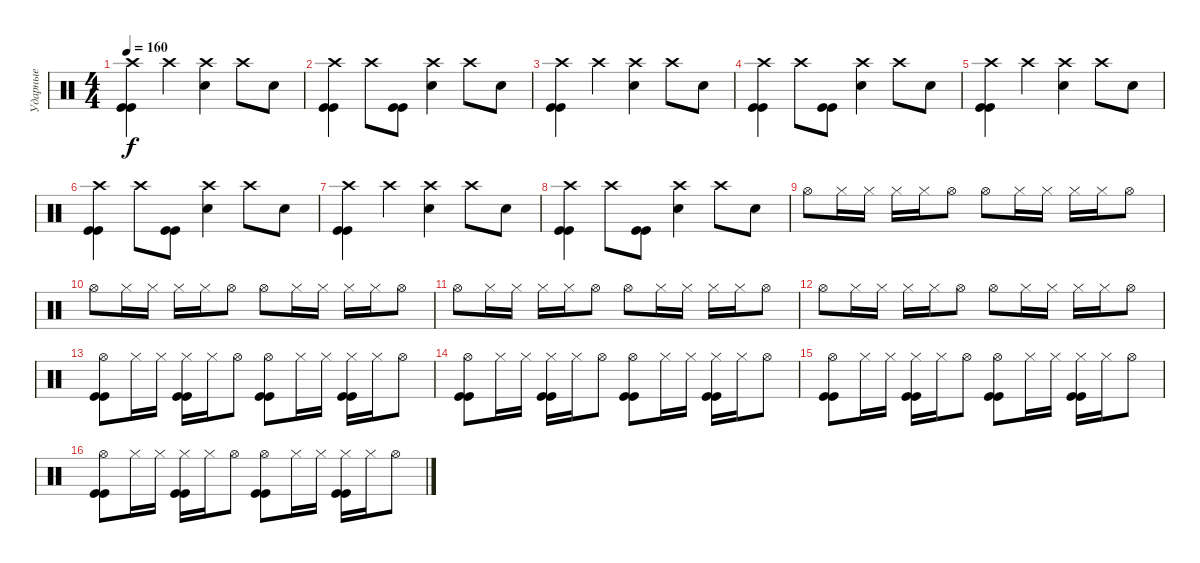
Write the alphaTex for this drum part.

\track ("Ударные" "Ударные") {instrument percussion}
\staff {score}
\articulation defaults
\ts (4 4)
\tempo 160
\clef neutral
\ks c
("Crash high (hit)" "Kick (hit)" "Kick (hit)").4{dy f} "Crash high (hit)".4 ("Crash high (hit)" "Electric Snare (hit)").4 "Crash high (hit)".8 "Electric Snare (hit)".8 |
("Crash high (hit)" "Kick (hit)" "Kick (hit)").4 "Crash high (hit)".8 ("Kick (hit)" "Kick (hit)").8 ("Crash high (hit)" "Electric Snare (hit)").4 "Crash high (hit)".8 "Electric Snare (hit)".8 |
("Crash high (hit)" "Kick (hit)" "Kick (hit)").4 "Crash high (hit)".4 ("Crash high (hit)" "Electric Snare (hit)").4 "Crash high (hit)".8 "Electric Snare (hit)".8 |
("Crash high (hit)" "Kick (hit)" "Kick (hit)").4 "Crash high (hit)".8 ("Kick (hit)" "Kick (hit)").8 ("Crash high (hit)" "Electric Snare (hit)").4 "Crash high (hit)".8 "Electric Snare (hit)".8 |
("Crash high (hit)" "Kick (hit)" "Kick (hit)").4 "Crash high (hit)".4 ("Crash high (hit)" "Electric Snare (hit)").4 "Crash high (hit)".8 "Electric Snare (hit)".8 |
("Crash high (hit)" "Kick (hit)" "Kick (hit)").4 "Crash high (hit)".8 ("Kick (hit)" "Kick (hit)").8 ("Crash high (hit)" "Electric Snare (hit)").4 "Crash high (hit)".8 "Electric Snare (hit)".8 |
("Crash high (hit)" "Kick (hit)" "Kick (hit)").4 "Crash high (hit)".4 ("Crash high (hit)" "Electric Snare (hit)").4 "Crash high (hit)".8 "Electric Snare (hit)".8 |
("Crash high (hit)" "Kick (hit)" "Kick (hit)").4 "Crash high (hit)".8 ("Kick (hit)" "Kick (hit)").8 ("Crash high (hit)" "Electric Snare (hit)").4 "Crash high (hit)".8 "Electric Snare (hit)".8 |
"Hi-Hat (open)".8 "Hi-Hat (closed)".16 "Hi-Hat (closed)".16 "Hi-Hat (closed)".16 "Hi-Hat (closed)".16 "Hi-Hat (open)".8 "Hi-Hat (open)".8 "Hi-Hat (closed)".16 "Hi-Hat (closed)".16 "Hi-Hat (closed)".16 "Hi-Hat (closed)".16 "Hi-Hat (open)".8 |
"Hi-Hat (open)".8 "Hi-Hat (closed)".16 "Hi-Hat (closed)".16 "Hi-Hat (closed)".16 "Hi-Hat (closed)".16 "Hi-Hat (open)".8 "Hi-Hat (open)".8 "Hi-Hat (closed)".16 "Hi-Hat (closed)".16 "Hi-Hat (closed)".16 "Hi-Hat (closed)".16 "Hi-Hat (open)".8 |
"Hi-Hat (open)".8 "Hi-Hat (closed)".16 "Hi-Hat (closed)".16 "Hi-Hat (closed)".16 "Hi-Hat (closed)".16 "Hi-Hat (open)".8 "Hi-Hat (open)".8 "Hi-Hat (closed)".16 "Hi-Hat (closed)".16 "Hi-Hat (closed)".16 "Hi-Hat (closed)".16 "Hi-Hat (open)".8 |
"Hi-Hat (open)".8 "Hi-Hat (closed)".16 "Hi-Hat (closed)".16 "Hi-Hat (closed)".16 "Hi-Hat (closed)".16 "Hi-Hat (open)".8 "Hi-Hat (open)".8 "Hi-Hat (closed)".16 "Hi-Hat (closed)".16 "Hi-Hat (closed)".16 "Hi-Hat (closed)".16 "Hi-Hat (open)".8 |
("Hi-Hat (open)" "Kick (hit)" "Kick (hit)").8 "Hi-Hat (closed)".16 "Hi-Hat (closed)".16 ("Hi-Hat (closed)" "Kick (hit)" "Kick (hit)").16 "Hi-Hat (closed)".16 "Hi-Hat (open)".8 ("Hi-Hat (open)" "Kick (hit)" "Kick (hit)").8 "Hi-Hat (closed)".16 "Hi-Hat (closed)".16 ("Hi-Hat (closed)" "Kick (hit)" "Kick (hit)").16 "Hi-Hat (closed)".16 "Hi-Hat (open)".8 |
("Hi-Hat (open)" "Kick (hit)" "Kick (hit)").8 "Hi-Hat (closed)".16 "Hi-Hat (closed)".16 ("Hi-Hat (closed)" "Kick (hit)" "Kick (hit)").16 "Hi-Hat (closed)".16 "Hi-Hat (open)".8 ("Hi-Hat (open)" "Kick (hit)" "Kick (hit)").8 "Hi-Hat (closed)".16 "Hi-Hat (closed)".16 ("Hi-Hat (closed)" "Kick (hit)" "Kick (hit)").16 "Hi-Hat (closed)".16 "Hi-Hat (open)".8 |
("Hi-Hat (open)" "Kick (hit)" "Kick (hit)").8 "Hi-Hat (closed)".16 "Hi-Hat (closed)".16 ("Hi-Hat (closed)" "Kick (hit)" "Kick (hit)").16 "Hi-Hat (closed)".16 "Hi-Hat (open)".8 ("Hi-Hat (open)" "Kick (hit)" "Kick (hit)").8 "Hi-Hat (closed)".16 "Hi-Hat (closed)".16 ("Hi-Hat (closed)" "Kick (hit)" "Kick (hit)").16 "Hi-Hat (closed)".16 "Hi-Hat (open)".8 |
("Hi-Hat (open)" "Kick (hit)" "Kick (hit)").8 "Hi-Hat (closed)".16 "Hi-Hat (closed)".16 ("Hi-Hat (closed)" "Kick (hit)" "Kick (hit)").16 "Hi-Hat (closed)".16 "Hi-Hat (open)".8 ("Hi-Hat (open)" "Kick (hit)" "Kick (hit)").8 "Hi-Hat (closed)".16 "Hi-Hat (closed)".16 ("Hi-Hat (closed)" "Kick (hit)" "Kick (hit)").16 "Hi-Hat (closed)".16 "Hi-Hat (open)".8
